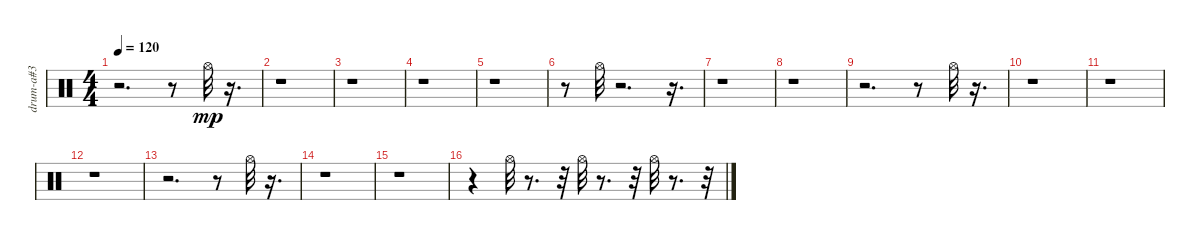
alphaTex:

\track ("drum-a#3" "drum-a#3") {instrument percussion}
\staff {score}
\articulation defaults
\ts (4 4)
\tempo 120
\clef neutral
\ks c
r.2{d dy mp} r.8 "Hi-Hat (open)".32 r.16{d} |
r.1 |
r.1 |
r.1 |
r.1 |
r.8 "Hi-Hat (open)".32 r.2{d} r.16{d} |
r.1 |
r.1 |
r.2{d} r.8 "Hi-Hat (open)".32 r.16{d} |
r.1 |
r.1 |
r.1 |
r.2{d} r.8 "Hi-Hat (open)".32 r.16{d} |
r.1 |
r.1 |
r.4 "Hi-Hat (open)".32 r.8{d} r.32 "Hi-Hat (open)".32 r.8{d} r.32 "Hi-Hat (open)".32 r.8{d} r.32
